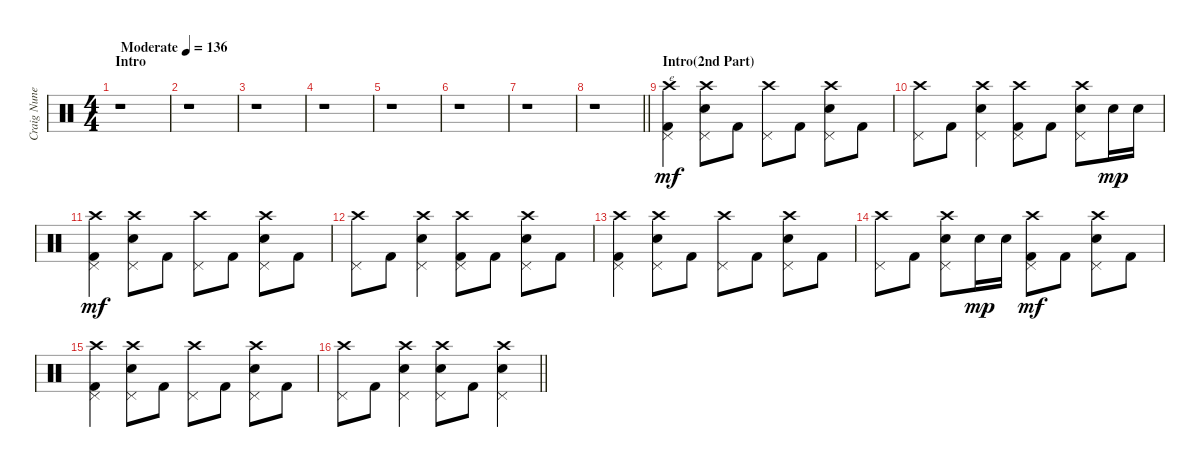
\track ("Craig Nunenmancher" "Craig Nune") {instrument percussion}
\staff {score}
\articulation defaults
\ts (4 4)
\section ("" "Intro")
\tempo (136 "Moderate")
\clef neutral
\ks c
r.1{dy mf} |
r.1 |
r.1 |
r.1 |
r.1 |
r.1 |
r.1 |
\barLineRight lightlight
r.1 |
\section ("" "Intro(2nd Part)")
("Crash high (hit)" "Pedal Hi-Hat (hit)" "Kick (hit) 2").4{txt "e"} ("Crash high (hit)" "Pedal Hi-Hat (hit)" "Snare (hit) 2").8 "Kick (hit) 2".8 ("Crash high (hit)" "Pedal Hi-Hat (hit)").8 "Kick (hit) 2".8 ("Crash high (hit)" "Pedal Hi-Hat (hit)" "Snare (hit) 2").8 "Kick (hit) 2".8 |
("Crash high (hit)" "Pedal Hi-Hat (hit)").8 "Kick (hit) 2".8 ("Crash high (hit)" "Pedal Hi-Hat (hit)" "Snare (hit) 2").4 ("Crash high (hit)" "Pedal Hi-Hat (hit)" "Kick (hit) 2").8 "Kick (hit) 2".8 ("Crash high (hit)" "Pedal Hi-Hat (hit)" "Snare (hit) 2").8 "Snare (hit) 2".16{dy mp} "Snare (hit) 2".16 |
("Crash high (hit)" "Pedal Hi-Hat (hit)" "Kick (hit) 2").4{dy mf} ("Crash high (hit)" "Pedal Hi-Hat (hit)" "Snare (hit) 2").8 "Kick (hit) 2".8 ("Crash high (hit)" "Pedal Hi-Hat (hit)").8 "Kick (hit) 2".8 ("Crash high (hit)" "Pedal Hi-Hat (hit)" "Snare (hit) 2").8 "Kick (hit) 2".8 |
("Crash high (hit)" "Pedal Hi-Hat (hit)").8 "Kick (hit) 2".8 ("Crash high (hit)" "Pedal Hi-Hat (hit)" "Snare (hit) 2").4 ("Crash high (hit)" "Pedal Hi-Hat (hit)" "Kick (hit) 2").8 "Kick (hit) 2".8 ("Crash high (hit)" "Pedal Hi-Hat (hit)" "Snare (hit) 2").8 "Kick (hit) 2".8 |
("Crash high (hit)" "Pedal Hi-Hat (hit)" "Kick (hit) 2").4 ("Crash high (hit)" "Pedal Hi-Hat (hit)" "Snare (hit) 2").8 "Kick (hit) 2".8 ("Crash high (hit)" "Pedal Hi-Hat (hit)").8 "Kick (hit) 2".8 ("Crash high (hit)" "Pedal Hi-Hat (hit)" "Snare (hit) 2").8 "Kick (hit) 2".8 |
("Crash high (hit)" "Pedal Hi-Hat (hit)").8 "Kick (hit) 2".8 ("Crash high (hit)" "Pedal Hi-Hat (hit)" "Snare (hit) 2").8 "Snare (hit) 2".16{dy mp} "Snare (hit) 2".16 ("Crash high (hit)" "Pedal Hi-Hat (hit)" "Kick (hit) 2").8{dy mf} "Kick (hit) 2".8 ("Crash high (hit)" "Pedal Hi-Hat (hit)" "Snare (hit) 2").8 "Kick (hit) 2".8 |
("Crash high (hit)" "Pedal Hi-Hat (hit)" "Kick (hit) 2").4 ("Crash high (hit)" "Pedal Hi-Hat (hit)" "Snare (hit) 2").8 "Kick (hit) 2".8 ("Crash high (hit)" "Pedal Hi-Hat (hit)").8 "Kick (hit) 2".8 ("Crash high (hit)" "Pedal Hi-Hat (hit)" "Snare (hit) 2").8 "Kick (hit) 2".8 |
\barLineRight lightlight
("Crash high (hit)" "Pedal Hi-Hat (hit)").8 "Kick (hit) 2".8 ("Crash high (hit)" "Pedal Hi-Hat (hit)" "Snare (hit) 2").4 ("Crash high (hit)" "Pedal Hi-Hat (hit)" "Snare (hit) 2").8 "Kick (hit) 2".8 ("Crash high (hit)" "Pedal Hi-Hat (hit)" "Snare (hit) 2").4
